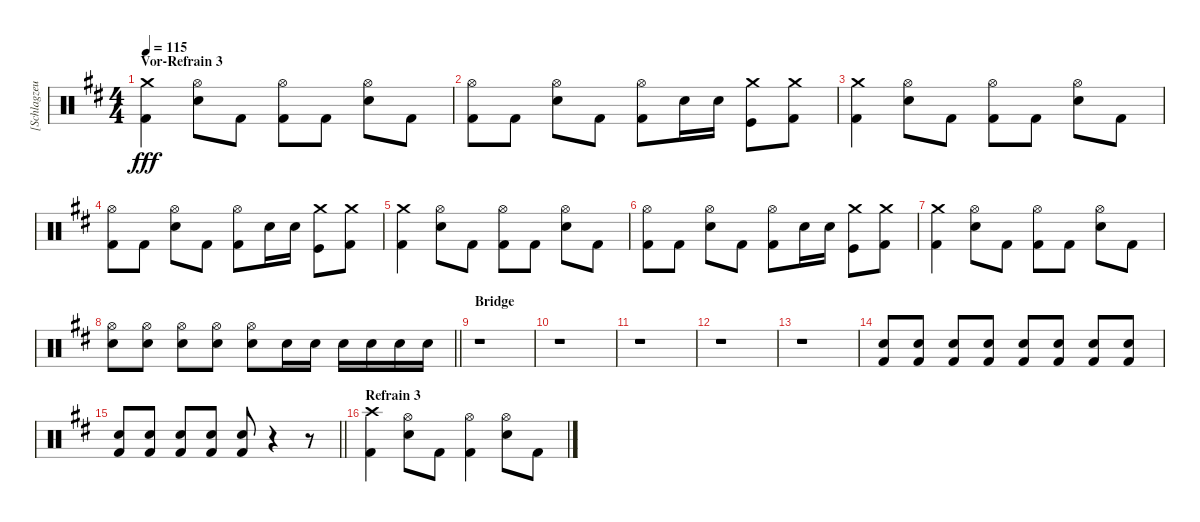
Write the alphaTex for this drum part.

\track ("[Schlagzeug]" "[Schlagzeu") {instrument percussion}
\staff {score}
\articulation defaults
\ts (4 4)
\section ("" "Vor-Refrain 3")
\tempo 115
\clef neutral
\ks bminor
("Crash medium (hit)" "Kick (hit) 2").4{dy fff} ("Electric Snare (hit)" "Hi-Hat (open)").8 "Kick (hit) 2".8 ("Hi-Hat (open)" "Kick (hit) 2").8 "Kick (hit) 2".8 ("Electric Snare (hit)" "Hi-Hat (open)").8 "Kick (hit) 2".8 |
("Hi-Hat (open)" "Kick (hit) 2").8 "Kick (hit) 2".8 ("Electric Snare (hit)" "Hi-Hat (open)").8 "Kick (hit) 2".8 ("Hi-Hat (open)" "Kick (hit) 2").8 "Electric Snare (hit)".16 "Electric Snare (hit)".16 ("Crash medium (hit)" "Kick (hit)").8 ("Crash medium (hit)" "Kick (hit) 2").8 |
("Crash medium (hit)" "Kick (hit) 2").4 ("Electric Snare (hit)" "Hi-Hat (open)").8 "Kick (hit) 2".8 ("Hi-Hat (open)" "Kick (hit) 2").8 "Kick (hit) 2".8 ("Electric Snare (hit)" "Hi-Hat (open)").8 "Kick (hit) 2".8 |
("Hi-Hat (open)" "Kick (hit) 2").8 "Kick (hit) 2".8 ("Electric Snare (hit)" "Hi-Hat (open)").8 "Kick (hit) 2".8 ("Hi-Hat (open)" "Kick (hit) 2").8 "Electric Snare (hit)".16 "Electric Snare (hit)".16 ("Crash medium (hit)" "Kick (hit)").8 ("Crash medium (hit)" "Kick (hit) 2").8 |
("Crash medium (hit)" "Kick (hit) 2").4 ("Electric Snare (hit)" "Hi-Hat (open)").8 "Kick (hit) 2".8 ("Hi-Hat (open)" "Kick (hit) 2").8 "Kick (hit) 2".8 ("Electric Snare (hit)" "Hi-Hat (open)").8 "Kick (hit) 2".8 |
("Hi-Hat (open)" "Kick (hit) 2").8 "Kick (hit) 2".8 ("Electric Snare (hit)" "Hi-Hat (open)").8 "Kick (hit) 2".8 ("Hi-Hat (open)" "Kick (hit) 2").8 "Electric Snare (hit)".16 "Electric Snare (hit)".16 ("Crash medium (hit)" "Kick (hit)").8 ("Crash medium (hit)" "Kick (hit) 2").8 |
("Crash medium (hit)" "Kick (hit) 2").4 ("Electric Snare (hit)" "Hi-Hat (open)").8 "Kick (hit) 2".8 ("Hi-Hat (open)" "Kick (hit) 2").8 "Kick (hit) 2".8 ("Electric Snare (hit)" "Hi-Hat (open)").8 "Kick (hit) 2".8 |
\barLineRight lightlight
("Electric Snare (hit)" "Hi-Hat (open)").8 ("Electric Snare (hit)" "Hi-Hat (open)").8 ("Electric Snare (hit)" "Hi-Hat (open)").8 ("Electric Snare (hit)" "Hi-Hat (open)").8 ("Electric Snare (hit)" "Hi-Hat (open)").8 "Electric Snare (hit)".16 "Electric Snare (hit)".16 "Electric Snare (hit)".16 "Electric Snare (hit)".16 "Electric Snare (hit)".16 "Electric Snare (hit)".16 |
\section ("" "Bridge")
r.1 |
r.1 |
r.1 |
r.1 |
r.1{volume 0} |
("Snare (hit) 2" "Kick (hit) 2").8{volume 12} ("Snare (hit) 2" "Kick (hit) 2").8 ("Snare (hit) 2" "Kick (hit) 2").8 ("Snare (hit) 2" "Kick (hit) 2").8 ("Snare (hit) 2" "Kick (hit) 2").8 ("Snare (hit) 2" "Kick (hit) 2").8 ("Snare (hit) 2" "Kick (hit) 2").8 ("Snare (hit) 2" "Kick (hit) 2").8 |
\barLineRight lightlight
("Snare (hit) 2" "Kick (hit) 2").8 ("Snare (hit) 2" "Kick (hit) 2").8 ("Snare (hit) 2" "Kick (hit) 2").8 ("Snare (hit) 2" "Kick (hit) 2").8 ("Snare (hit) 2" "Kick (hit) 2").8 r.4 r.8 |
\section ("" "Refrain 3")
("Crash high (hit)" "Kick (hit) 2").4 ("Hi-Hat (open)" "Electric Snare (hit)").8 "Kick (hit) 2".8 ("Hi-Hat (open)" "Kick (hit) 2").4 ("Hi-Hat (open)" "Electric Snare (hit)").8 "Kick (hit) 2".8
